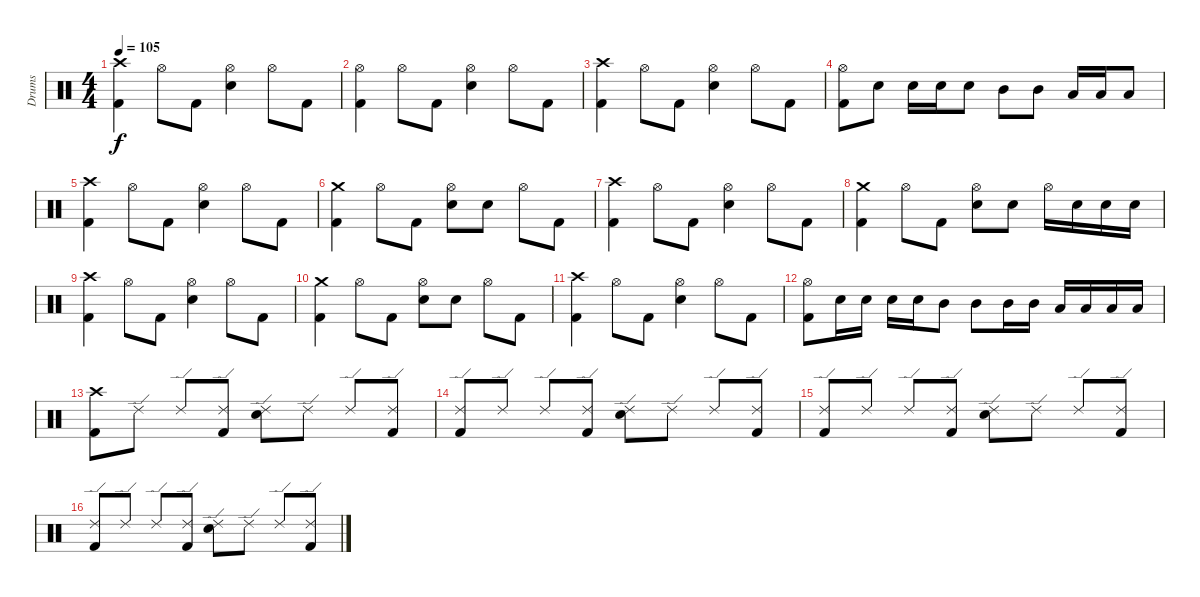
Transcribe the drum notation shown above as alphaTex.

\track ("Drums" "Drums") {instrument percussion}
\staff {score}
\articulation defaults
\ts (4 4)
\tempo 105
\clef neutral
\ks c
("Crash high (hit)" "Kick (hit) 2").4{dy f} "Hi-Hat (open)".8 "Kick (hit) 2".8 ("Hi-Hat (open)" "Electric Snare (hit)").4 "Hi-Hat (open)".8 "Kick (hit) 2".8 |
("Hi-Hat (open)" "Kick (hit) 2").4 "Hi-Hat (open)".8 "Kick (hit) 2".8 ("Hi-Hat (open)" "Electric Snare (hit)").4 "Hi-Hat (open)".8 "Kick (hit) 2".8 |
("Crash high (hit)" "Kick (hit) 2").4 "Hi-Hat (open)".8 "Kick (hit) 2".8 ("Hi-Hat (open)" "Electric Snare (hit)").4 "Hi-Hat (open)".8 "Kick (hit) 2".8 |
("Hi-Hat (open)" "Kick (hit) 2").8 "Electric Snare (hit)".8 "Electric Snare (hit)".16 "Electric Snare (hit)".16 "Electric Snare (hit)".8 "Mid Tom (hit)".8 "Mid Tom (hit)".8 "Low Tom (hit)".16 "Low Tom (hit)".16 "Low Tom (hit)".8 |
("Crash high (hit)" "Kick (hit) 2").4 "Hi-Hat (open)".8 "Kick (hit) 2".8 ("Hi-Hat (open)" "Electric Snare (hit)").4 "Hi-Hat (open)".8 "Kick (hit) 2".8 |
("Crash medium (hit)" "Kick (hit) 2").4 "Hi-Hat (open)".8 "Kick (hit) 2".8 ("Hi-Hat (open)" "Electric Snare (hit)").8 "Electric Snare (hit)".8 "Hi-Hat (open)".8 "Kick (hit) 2".8 |
("Crash high (hit)" "Kick (hit) 2").4 "Hi-Hat (open)".8 "Kick (hit) 2".8 ("Hi-Hat (open)" "Electric Snare (hit)").4 "Hi-Hat (open)".8 "Kick (hit) 2".8 |
("Crash medium (hit)" "Kick (hit) 2").4 "Hi-Hat (open)".8 "Kick (hit) 2".8 ("Hi-Hat (open)" "Electric Snare (hit)").8 "Electric Snare (hit)".8 "Hi-Hat (open)".16 "Electric Snare (hit)".16 "Electric Snare (hit)".16 "Electric Snare (hit)".16 |
("Crash high (hit)" "Kick (hit) 2").4 "Hi-Hat (open)".8 "Kick (hit) 2".8 ("Hi-Hat (open)" "Electric Snare (hit)").4 "Hi-Hat (open)".8 "Kick (hit) 2".8 |
("Crash medium (hit)" "Kick (hit) 2").4 "Hi-Hat (open)".8 "Kick (hit) 2".8 ("Hi-Hat (open)" "Electric Snare (hit)").8 "Electric Snare (hit)".8 "Hi-Hat (open)".8 "Kick (hit) 2".8 |
("Crash high (hit)" "Kick (hit) 2").4 "Hi-Hat (open)".8 "Kick (hit) 2".8 ("Hi-Hat (open)" "Electric Snare (hit)").4 "Hi-Hat (open)".8 "Kick (hit) 2".8 |
("Hi-Hat (open)" "Kick (hit) 2").8 "Electric Snare (hit)".16 "Electric Snare (hit)".16 "Electric Snare (hit)".16 "Electric Snare (hit)".16 "Mid Tom (hit)".8 "Mid Tom (hit)".8 "Mid Tom (hit)".16 "Mid Tom (hit)".16 "Low Tom (hit)".16 "Low Tom (hit)".16 "Low Tom (hit)".16 "Low Tom (hit)".16 |
("Crash high (hit)" "Kick (hit) 2").8 "Ride (edge) 2".8 "Ride (edge) 2".8 ("Ride (edge) 2" "Kick (hit) 2").8 ("Ride (edge) 2" "Electric Snare (hit)").8 "Ride (edge) 2".8 "Ride (edge) 2".8 ("Ride (edge) 2" "Kick (hit) 2").8 |
("Ride (edge) 2" "Kick (hit) 2").8 "Ride (edge) 2".8 "Ride (edge) 2".8 ("Ride (edge) 2" "Kick (hit) 2").8 ("Ride (edge) 2" "Electric Snare (hit)").8 "Ride (edge) 2".8 "Ride (edge) 2".8 ("Ride (edge) 2" "Kick (hit) 2").8 |
("Ride (edge) 2" "Kick (hit) 2").8 "Ride (edge) 2".8 "Ride (edge) 2".8 ("Ride (edge) 2" "Kick (hit) 2").8 ("Ride (edge) 2" "Electric Snare (hit)").8 "Ride (edge) 2".8 "Ride (edge) 2".8 ("Ride (edge) 2" "Kick (hit) 2").8 |
("Ride (edge) 2" "Kick (hit) 2").8 "Ride (edge) 2".8 "Ride (edge) 2".8 ("Ride (edge) 2" "Kick (hit) 2").8 ("Ride (edge) 2" "Electric Snare (hit)").8 "Ride (edge) 2".8 "Ride (edge) 2".8 ("Ride (edge) 2" "Kick (hit) 2").8
